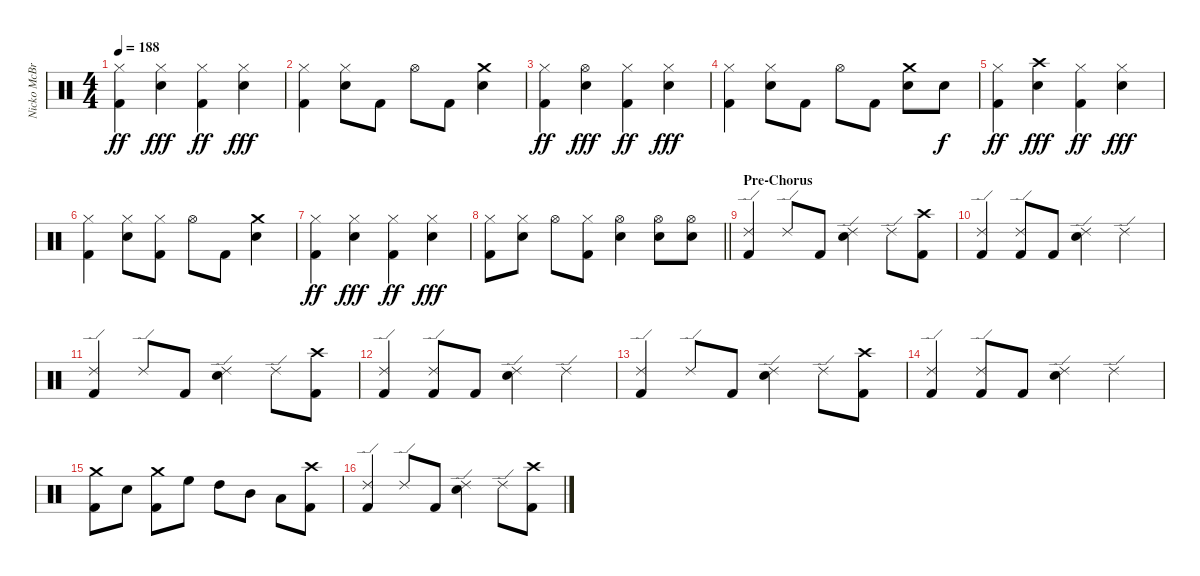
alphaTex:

\track ("Nicko McBrain" "Nicko McBr") {instrument percussion}
\staff {score}
\articulation defaults
\ts (4 4)
\tempo 188
\clef neutral
\ks c
("Hi-Hat (closed)" "Kick (hit) 2").4{dy ff} ("Hi-Hat (closed)" "Electric Snare (hit)").4{dy fff} ("Hi-Hat (closed)" "Kick (hit) 2").4{dy ff} ("Hi-Hat (closed)" "Electric Snare (hit)").4{dy fff} |
("Hi-Hat (closed)" "Kick (hit) 2").4 ("Hi-Hat (closed)" "Electric Snare (hit)").8 "Kick (hit) 2".8 "Hi-Hat (open)".8 "Kick (hit) 2".8 ("Crash medium (hit)" "Electric Snare (hit)").4 |
("Hi-Hat (closed)" "Kick (hit) 2").4{dy ff} ("Hi-Hat (open)" "Electric Snare (hit)").4{dy fff} ("Hi-Hat (closed)" "Kick (hit) 2").4{dy ff} ("Hi-Hat (closed)" "Electric Snare (hit)").4{dy fff} |
("Hi-Hat (closed)" "Kick (hit) 2").4 ("Hi-Hat (closed)" "Electric Snare (hit)").8 "Kick (hit) 2".8 "Hi-Hat (open)".8 "Kick (hit) 2".8 ("Crash medium (hit)" "Electric Snare (hit)").8 "Electric Snare (hit)".8{dy f} |
("Hi-Hat (closed)" "Kick (hit) 2").4{dy ff} ("Crash high (hit)" "Electric Snare (hit)").4{dy fff} ("Hi-Hat (closed)" "Kick (hit) 2").4{dy ff} ("Hi-Hat (closed)" "Electric Snare (hit)").4{dy fff} |
("Hi-Hat (closed)" "Kick (hit) 2").4 ("Hi-Hat (closed)" "Electric Snare (hit)").8 ("Hi-Hat (closed)" "Kick (hit) 2").8 "Hi-Hat (open)".8 "Kick (hit) 2".8 ("Crash medium (hit)" "Electric Snare (hit)").4 |
("Hi-Hat (closed)" "Kick (hit) 2").4{dy ff} ("Hi-Hat (closed)" "Electric Snare (hit)").4{dy fff} ("Hi-Hat (closed)" "Kick (hit) 2").4{dy ff} ("Hi-Hat (closed)" "Electric Snare (hit)").4{dy fff} |
\barLineRight lightlight
("Hi-Hat (closed)" "Kick (hit) 2").8 ("Hi-Hat (closed)" "Electric Snare (hit)").8 "Hi-Hat (open)".8 ("Hi-Hat (closed)" "Kick (hit) 2").8 ("Hi-Hat (open)" "Electric Snare (hit)").4 ("Hi-Hat (open)" "Electric Snare (hit)").8 ("Hi-Hat (open)" "Electric Snare (hit)").8 |
\section ("" "Pre-Chorus")
("Ride (edge) 2" "Kick (hit) 2").4 "Ride (edge) 2".8 "Kick (hit) 2".8 ("Ride (edge) 2" "Electric Snare (hit)").4 "Ride (edge) 2".8 ("Crash high (hit)" "Kick (hit) 2").8 |
("Ride (edge) 2" "Kick (hit) 2").4 ("Ride (edge) 2" "Kick (hit) 2").8 "Kick (hit) 2".8 ("Ride (edge) 2" "Electric Snare (hit)").4 "Ride (edge) 2".4 |
("Ride (edge) 2" "Kick (hit) 2").4 "Ride (edge) 2".8 "Kick (hit) 2".8 ("Ride (edge) 2" "Electric Snare (hit)").4 "Ride (edge) 2".8 ("Crash high (hit)" "Kick (hit) 2").8 |
("Ride (edge) 2" "Kick (hit) 2").4 ("Ride (edge) 2" "Kick (hit) 2").8 "Kick (hit) 2".8 ("Ride (edge) 2" "Electric Snare (hit)").4 "Ride (edge) 2".4 |
("Ride (edge) 2" "Kick (hit) 2").4 "Ride (edge) 2".8 "Kick (hit) 2".8 ("Ride (edge) 2" "Electric Snare (hit)").4 "Ride (edge) 2".8 ("Crash high (hit)" "Kick (hit) 2").8 |
("Ride (edge) 2" "Kick (hit) 2").4 ("Ride (edge) 2" "Kick (hit) 2").8 "Kick (hit) 2".8 ("Ride (edge) 2" "Electric Snare (hit)").4 "Ride (edge) 2".4 |
("Crash medium (hit)" "Kick (hit) 2").8 "Electric Snare (hit)".8 ("Crash medium (hit)" "Kick (hit) 2").8 "High Floor Tom (hit)".8 "High Tom (hit)".8 "Mid Tom (hit)".8 "Low Tom (hit)".8 ("Crash high (hit)" "Kick (hit) 2").8 |
("Ride (edge) 2" "Kick (hit) 2").4 "Ride (edge) 2".8 "Kick (hit) 2".8 ("Ride (edge) 2" "Electric Snare (hit)").4 "Ride (edge) 2".8 ("Crash high (hit)" "Kick (hit) 2").8
